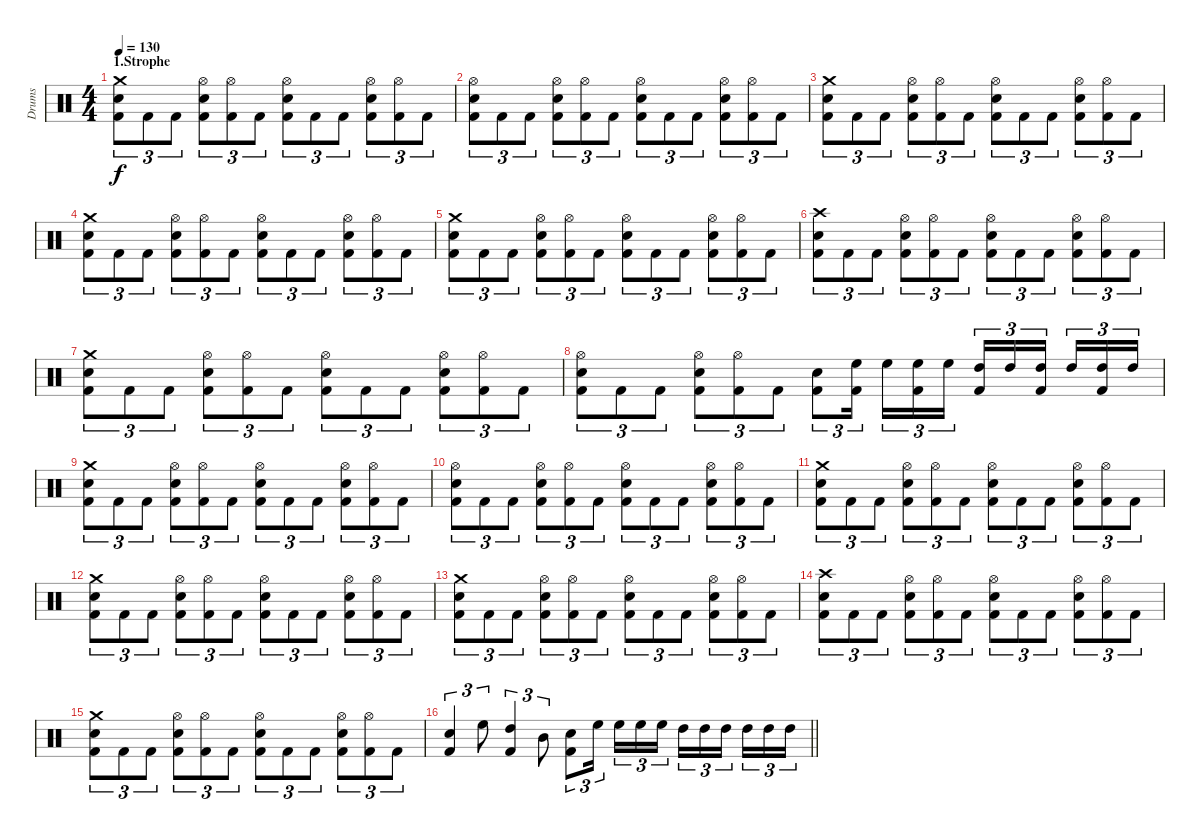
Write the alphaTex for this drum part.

\track ("Drums" "Drums") {instrument percussion}
\staff {score}
\articulation defaults
\ts (4 4)
\section ("" "1.Strophe")
\tempo 130
\clef neutral
\ks c
("Crash medium (hit)" "Electric Snare (hit)" "Kick (hit) 2").8{tu (3 2) dy f} "Kick (hit) 2".8{tu (3 2)} "Kick (hit) 2".8{tu (3 2)} ("Hi-Hat (open)" "Electric Snare (hit)" "Kick (hit) 2").8{tu (3 2)} ("Hi-Hat (open)" "Kick (hit) 2").8{tu (3 2)} "Kick (hit) 2".8{tu (3 2)} ("Hi-Hat (open)" "Electric Snare (hit)" "Kick (hit) 2").8{tu (3 2)} "Kick (hit) 2".8{tu (3 2)} "Kick (hit) 2".8{tu (3 2)} ("Hi-Hat (open)" "Electric Snare (hit)" "Kick (hit) 2").8{tu (3 2)} ("Hi-Hat (open)" "Kick (hit) 2").8{tu (3 2)} "Kick (hit) 2".8{tu (3 2)} |
("Hi-Hat (open)" "Electric Snare (hit)" "Kick (hit) 2").8{tu (3 2)} "Kick (hit) 2".8{tu (3 2)} "Kick (hit) 2".8{tu (3 2)} ("Hi-Hat (open)" "Electric Snare (hit)" "Kick (hit) 2").8{tu (3 2)} ("Hi-Hat (open)" "Kick (hit) 2").8{tu (3 2)} "Kick (hit) 2".8{tu (3 2)} ("Hi-Hat (open)" "Electric Snare (hit)" "Kick (hit) 2").8{tu (3 2)} "Kick (hit) 2".8{tu (3 2)} "Kick (hit) 2".8{tu (3 2)} ("Hi-Hat (open)" "Electric Snare (hit)" "Kick (hit) 2").8{tu (3 2)} ("Hi-Hat (open)" "Kick (hit) 2").8{tu (3 2)} "Kick (hit) 2".8{tu (3 2)} |
("Crash medium (hit)" "Electric Snare (hit)" "Kick (hit) 2").8{tu (3 2)} "Kick (hit) 2".8{tu (3 2)} "Kick (hit) 2".8{tu (3 2)} ("Hi-Hat (open)" "Electric Snare (hit)" "Kick (hit) 2").8{tu (3 2)} ("Hi-Hat (open)" "Kick (hit) 2").8{tu (3 2)} "Kick (hit) 2".8{tu (3 2)} ("Hi-Hat (open)" "Electric Snare (hit)" "Kick (hit) 2").8{tu (3 2)} "Kick (hit) 2".8{tu (3 2)} "Kick (hit) 2".8{tu (3 2)} ("Hi-Hat (open)" "Electric Snare (hit)" "Kick (hit) 2").8{tu (3 2)} ("Hi-Hat (open)" "Kick (hit) 2").8{tu (3 2)} "Kick (hit) 2".8{tu (3 2)} |
("Crash medium (hit)" "Electric Snare (hit)" "Kick (hit) 2").8{tu (3 2)} "Kick (hit) 2".8{tu (3 2)} "Kick (hit) 2".8{tu (3 2)} ("Hi-Hat (open)" "Electric Snare (hit)" "Kick (hit) 2").8{tu (3 2)} ("Hi-Hat (open)" "Kick (hit) 2").8{tu (3 2)} "Kick (hit) 2".8{tu (3 2)} ("Hi-Hat (open)" "Electric Snare (hit)" "Kick (hit) 2").8{tu (3 2)} "Kick (hit) 2".8{tu (3 2)} "Kick (hit) 2".8{tu (3 2)} ("Hi-Hat (open)" "Electric Snare (hit)" "Kick (hit) 2").8{tu (3 2)} ("Hi-Hat (open)" "Kick (hit) 2").8{tu (3 2)} "Kick (hit) 2".8{tu (3 2)} |
("Crash medium (hit)" "Electric Snare (hit)" "Kick (hit) 2").8{tu (3 2)} "Kick (hit) 2".8{tu (3 2)} "Kick (hit) 2".8{tu (3 2)} ("Hi-Hat (open)" "Electric Snare (hit)" "Kick (hit) 2").8{tu (3 2)} ("Hi-Hat (open)" "Kick (hit) 2").8{tu (3 2)} "Kick (hit) 2".8{tu (3 2)} ("Hi-Hat (open)" "Electric Snare (hit)" "Kick (hit) 2").8{tu (3 2)} "Kick (hit) 2".8{tu (3 2)} "Kick (hit) 2".8{tu (3 2)} ("Hi-Hat (open)" "Electric Snare (hit)" "Kick (hit) 2").8{tu (3 2)} ("Hi-Hat (open)" "Kick (hit) 2").8{tu (3 2)} "Kick (hit) 2".8{tu (3 2)} |
("Crash high (hit)" "Electric Snare (hit)" "Kick (hit) 2").8{tu (3 2)} "Kick (hit) 2".8{tu (3 2)} "Kick (hit) 2".8{tu (3 2)} ("Hi-Hat (open)" "Electric Snare (hit)" "Kick (hit) 2").8{tu (3 2)} ("Hi-Hat (open)" "Kick (hit) 2").8{tu (3 2)} "Kick (hit) 2".8{tu (3 2)} ("Hi-Hat (open)" "Electric Snare (hit)" "Kick (hit) 2").8{tu (3 2)} "Kick (hit) 2".8{tu (3 2)} "Kick (hit) 2".8{tu (3 2)} ("Hi-Hat (open)" "Electric Snare (hit)" "Kick (hit) 2").8{tu (3 2)} ("Hi-Hat (open)" "Kick (hit) 2").8{tu (3 2)} "Kick (hit) 2".8{tu (3 2)} |
("Crash medium (hit)" "Electric Snare (hit)" "Kick (hit) 2").8{tu (3 2)} "Kick (hit) 2".8{tu (3 2)} "Kick (hit) 2".8{tu (3 2)} ("Hi-Hat (open)" "Electric Snare (hit)" "Kick (hit) 2").8{tu (3 2)} ("Hi-Hat (open)" "Kick (hit) 2").8{tu (3 2)} "Kick (hit) 2".8{tu (3 2)} ("Hi-Hat (open)" "Electric Snare (hit)" "Kick (hit) 2").8{tu (3 2)} "Kick (hit) 2".8{tu (3 2)} "Kick (hit) 2".8{tu (3 2)} ("Hi-Hat (open)" "Electric Snare (hit)" "Kick (hit) 2").8{tu (3 2)} ("Hi-Hat (open)" "Kick (hit) 2").8{tu (3 2)} "Kick (hit) 2".8{tu (3 2)} |
("Hi-Hat (open)" "Electric Snare (hit)" "Kick (hit) 2").8{tu (3 2)} "Kick (hit) 2".8{tu (3 2)} "Kick (hit) 2".8{tu (3 2)} ("Hi-Hat (open)" "Electric Snare (hit)" "Kick (hit) 2").8{tu (3 2)} ("Hi-Hat (open)" "Kick (hit) 2").8{tu (3 2)} "Kick (hit) 2".8{tu (3 2)} ("Electric Snare (hit)" "Kick (hit) 2").8{tu (3 2)} ("High Floor Tom (hit)" "Kick (hit) 2").16{tu (3 2) beam splitsecondary} "High Floor Tom (hit)".16{tu (3 2)} ("High Floor Tom (hit)" "Kick (hit) 2").16{tu (3 2)} "High Floor Tom (hit)".16{tu (3 2)} ("High Tom (hit)" "Kick (hit) 2").16{tu (3 2)} "High Tom (hit)".16{tu (3 2)} ("High Tom (hit)" "Kick (hit) 2").16{tu (3 2) beam splitsecondary} "High Tom (hit)".16{tu (3 2)} ("High Tom (hit)" "Kick (hit) 2").16{tu (3 2)} "High Tom (hit)".16{tu (3 2)} |
("Crash medium (hit)" "Electric Snare (hit)" "Kick (hit) 2").8{tu (3 2)} "Kick (hit) 2".8{tu (3 2)} "Kick (hit) 2".8{tu (3 2)} ("Hi-Hat (open)" "Electric Snare (hit)" "Kick (hit) 2").8{tu (3 2)} ("Hi-Hat (open)" "Kick (hit) 2").8{tu (3 2)} "Kick (hit) 2".8{tu (3 2)} ("Hi-Hat (open)" "Electric Snare (hit)" "Kick (hit) 2").8{tu (3 2)} "Kick (hit) 2".8{tu (3 2)} "Kick (hit) 2".8{tu (3 2)} ("Hi-Hat (open)" "Electric Snare (hit)" "Kick (hit) 2").8{tu (3 2)} ("Hi-Hat (open)" "Kick (hit) 2").8{tu (3 2)} "Kick (hit) 2".8{tu (3 2)} |
("Hi-Hat (open)" "Electric Snare (hit)" "Kick (hit) 2").8{tu (3 2)} "Kick (hit) 2".8{tu (3 2)} "Kick (hit) 2".8{tu (3 2)} ("Hi-Hat (open)" "Electric Snare (hit)" "Kick (hit) 2").8{tu (3 2)} ("Hi-Hat (open)" "Kick (hit) 2").8{tu (3 2)} "Kick (hit) 2".8{tu (3 2)} ("Hi-Hat (open)" "Electric Snare (hit)" "Kick (hit) 2").8{tu (3 2)} "Kick (hit) 2".8{tu (3 2)} "Kick (hit) 2".8{tu (3 2)} ("Hi-Hat (open)" "Electric Snare (hit)" "Kick (hit) 2").8{tu (3 2)} ("Hi-Hat (open)" "Kick (hit) 2").8{tu (3 2)} "Kick (hit) 2".8{tu (3 2)} |
("Crash medium (hit)" "Electric Snare (hit)" "Kick (hit) 2").8{tu (3 2)} "Kick (hit) 2".8{tu (3 2)} "Kick (hit) 2".8{tu (3 2)} ("Hi-Hat (open)" "Electric Snare (hit)" "Kick (hit) 2").8{tu (3 2)} ("Hi-Hat (open)" "Kick (hit) 2").8{tu (3 2)} "Kick (hit) 2".8{tu (3 2)} ("Hi-Hat (open)" "Electric Snare (hit)" "Kick (hit) 2").8{tu (3 2)} "Kick (hit) 2".8{tu (3 2)} "Kick (hit) 2".8{tu (3 2)} ("Hi-Hat (open)" "Electric Snare (hit)" "Kick (hit) 2").8{tu (3 2)} ("Hi-Hat (open)" "Kick (hit) 2").8{tu (3 2)} "Kick (hit) 2".8{tu (3 2)} |
("Crash medium (hit)" "Electric Snare (hit)" "Kick (hit) 2").8{tu (3 2)} "Kick (hit) 2".8{tu (3 2)} "Kick (hit) 2".8{tu (3 2)} ("Hi-Hat (open)" "Electric Snare (hit)" "Kick (hit) 2").8{tu (3 2)} ("Hi-Hat (open)" "Kick (hit) 2").8{tu (3 2)} "Kick (hit) 2".8{tu (3 2)} ("Hi-Hat (open)" "Electric Snare (hit)" "Kick (hit) 2").8{tu (3 2)} "Kick (hit) 2".8{tu (3 2)} "Kick (hit) 2".8{tu (3 2)} ("Hi-Hat (open)" "Electric Snare (hit)" "Kick (hit) 2").8{tu (3 2)} ("Hi-Hat (open)" "Kick (hit) 2").8{tu (3 2)} "Kick (hit) 2".8{tu (3 2)} |
("Crash medium (hit)" "Electric Snare (hit)" "Kick (hit) 2").8{tu (3 2)} "Kick (hit) 2".8{tu (3 2)} "Kick (hit) 2".8{tu (3 2)} ("Hi-Hat (open)" "Electric Snare (hit)" "Kick (hit) 2").8{tu (3 2)} ("Hi-Hat (open)" "Kick (hit) 2").8{tu (3 2)} "Kick (hit) 2".8{tu (3 2)} ("Hi-Hat (open)" "Electric Snare (hit)" "Kick (hit) 2").8{tu (3 2)} "Kick (hit) 2".8{tu (3 2)} "Kick (hit) 2".8{tu (3 2)} ("Hi-Hat (open)" "Electric Snare (hit)" "Kick (hit) 2").8{tu (3 2)} ("Hi-Hat (open)" "Kick (hit) 2").8{tu (3 2)} "Kick (hit) 2".8{tu (3 2)} |
("Crash high (hit)" "Electric Snare (hit)" "Kick (hit) 2").8{tu (3 2)} "Kick (hit) 2".8{tu (3 2)} "Kick (hit) 2".8{tu (3 2)} ("Hi-Hat (open)" "Electric Snare (hit)" "Kick (hit) 2").8{tu (3 2)} ("Hi-Hat (open)" "Kick (hit) 2").8{tu (3 2)} "Kick (hit) 2".8{tu (3 2)} ("Hi-Hat (open)" "Electric Snare (hit)" "Kick (hit) 2").8{tu (3 2)} "Kick (hit) 2".8{tu (3 2)} "Kick (hit) 2".8{tu (3 2)} ("Hi-Hat (open)" "Electric Snare (hit)" "Kick (hit) 2").8{tu (3 2)} ("Hi-Hat (open)" "Kick (hit) 2").8{tu (3 2)} "Kick (hit) 2".8{tu (3 2)} |
("Crash medium (hit)" "Electric Snare (hit)" "Kick (hit) 2").8{tu (3 2)} "Kick (hit) 2".8{tu (3 2)} "Kick (hit) 2".8{tu (3 2)} ("Hi-Hat (open)" "Electric Snare (hit)" "Kick (hit) 2").8{tu (3 2)} ("Hi-Hat (open)" "Kick (hit) 2").8{tu (3 2)} "Kick (hit) 2".8{tu (3 2)} ("Hi-Hat (open)" "Electric Snare (hit)" "Kick (hit) 2").8{tu (3 2)} "Kick (hit) 2".8{tu (3 2)} "Kick (hit) 2".8{tu (3 2)} ("Hi-Hat (open)" "Electric Snare (hit)" "Kick (hit) 2").8{tu (3 2)} ("Hi-Hat (open)" "Kick (hit) 2").8{tu (3 2)} "Kick (hit) 2".8{tu (3 2)} |
\barLineRight lightlight
("Electric Snare (hit)" "Kick (hit) 2").4{tu (3 2)} "High Floor Tom (hit)".8{tu (3 2)} ("High Tom (hit)" "Kick (hit) 2").4{tu (3 2)} "Mid Tom (hit)".8{tu (3 2)} ("Electric Snare (hit)" "Kick (hit) 2").8{tu (3 2)} "High Floor Tom (hit)".16{tu (3 2) beam splitsecondary} "High Floor Tom (hit)".16{tu (3 2)} "High Floor Tom (hit)".16{tu (3 2)} "High Floor Tom (hit)".16{tu (3 2)} "High Tom (hit)".16{tu (3 2)} "High Tom (hit)".16{tu (3 2)} "High Tom (hit)".16{tu (3 2) beam splitsecondary} "High Tom (hit)".16{tu (3 2)} "High Tom (hit)".16{tu (3 2)} "High Tom (hit)".16{tu (3 2)}
